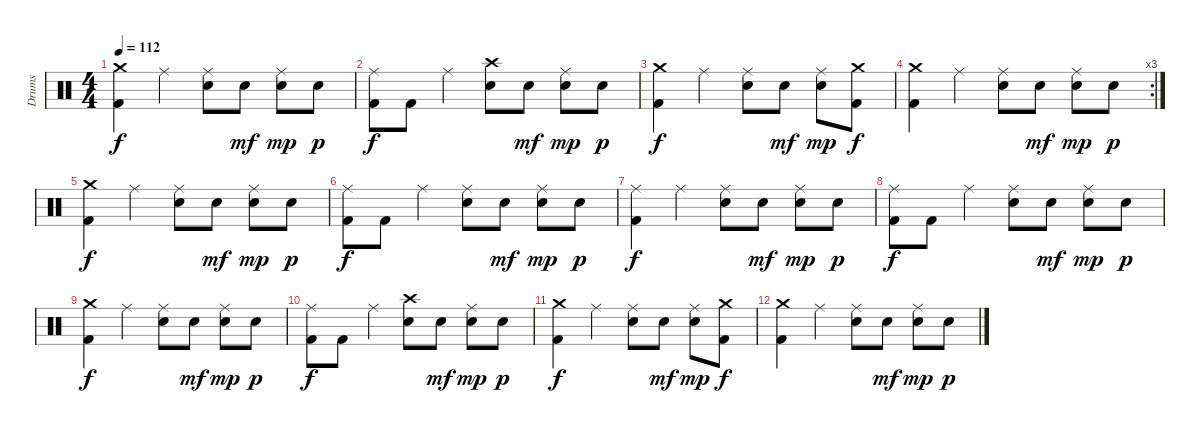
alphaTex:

\track ("Drums" "Drums") {instrument percussion}
\staff {score}
\articulation defaults
\ts (4 4)
\tempo 112
\clef neutral
\ks c
("Crash medium (hit)" "Kick (hit) 2").4{dy f} "Ride (middle)".4 ("Ride (middle)" "Snare (hit) 2").8 "Snare (hit) 2".8{dy mf} ("Ride (middle)" "Snare (hit) 2").8{dy mp} "Snare (hit) 2".8{dy p} |
("Ride (middle)" "Kick (hit) 2").8{dy f} "Kick (hit) 2".8 "Ride (middle)".4 ("Crash high (hit)" "Snare (hit) 2").8 "Snare (hit) 2".8{dy mf} ("Ride (middle)" "Snare (hit) 2").8{dy mp} "Snare (hit) 2".8{dy p} |
("Crash medium (hit)" "Kick (hit) 2").4{dy f} "Ride (middle)".4 ("Ride (middle)" "Snare (hit) 2").8 "Snare (hit) 2".8{dy mf} ("Ride (middle)" "Snare (hit) 2").8{dy mp} ("Crash medium (hit)" "Kick (hit) 2").8{dy f} |
\rc 3
("Crash medium (hit)" "Kick (hit) 2").4 "Ride (middle)".4 ("Ride (middle)" "Snare (hit) 2").8 "Snare (hit) 2".8{dy mf} ("Ride (middle)" "Snare (hit) 2").8{dy mp} "Snare (hit) 2".8{dy p} |
("Crash medium (hit)" "Kick (hit) 2").4{dy f} "Ride (middle)".4 ("Ride (middle)" "Snare (hit) 2").8 "Snare (hit) 2".8{dy mf} ("Ride (middle)" "Snare (hit) 2").8{dy mp} "Snare (hit) 2".8{dy p} |
("Ride (middle)" "Kick (hit) 2").8{dy f} "Kick (hit) 2".8 "Ride (middle)".4 ("Ride (middle)" "Snare (hit) 2").8 "Snare (hit) 2".8{dy mf} ("Ride (middle)" "Snare (hit) 2").8{dy mp} "Snare (hit) 2".8{dy p} |
("Ride (middle)" "Kick (hit) 2").4{dy f} "Ride (middle)".4 ("Ride (middle)" "Snare (hit) 2").8 "Snare (hit) 2".8{dy mf} ("Ride (middle)" "Snare (hit) 2").8{dy mp} "Snare (hit) 2".8{dy p} |
("Ride (middle)" "Kick (hit) 2").8{dy f} "Kick (hit) 2".8 "Ride (middle)".4 ("Ride (middle)" "Snare (hit) 2").8 "Snare (hit) 2".8{dy mf} ("Ride (middle)" "Snare (hit) 2").8{dy mp} "Snare (hit) 2".8{dy p} |
("Crash medium (hit)" "Kick (hit) 2").4{dy f} "Ride (middle)".4 ("Ride (middle)" "Snare (hit) 2").8 "Snare (hit) 2".8{dy mf} ("Ride (middle)" "Snare (hit) 2").8{dy mp} "Snare (hit) 2".8{dy p} |
("Ride (middle)" "Kick (hit) 2").8{dy f} "Kick (hit) 2".8 "Ride (middle)".4 ("Crash high (hit)" "Snare (hit) 2").8 "Snare (hit) 2".8{dy mf} ("Ride (middle)" "Snare (hit) 2").8{dy mp} "Snare (hit) 2".8{dy p} |
("Crash medium (hit)" "Kick (hit) 2").4{dy f} "Ride (middle)".4 ("Ride (middle)" "Snare (hit) 2").8 "Snare (hit) 2".8{dy mf} ("Ride (middle)" "Snare (hit) 2").8{dy mp} ("Crash medium (hit)" "Kick (hit) 2").8{dy f} |
("Crash medium (hit)" "Kick (hit) 2").4 "Ride (middle)".4 ("Ride (middle)" "Snare (hit) 2").8 "Snare (hit) 2".8{dy mf} ("Ride (middle)" "Snare (hit) 2").8{dy mp} "Snare (hit) 2".8{dy p}
